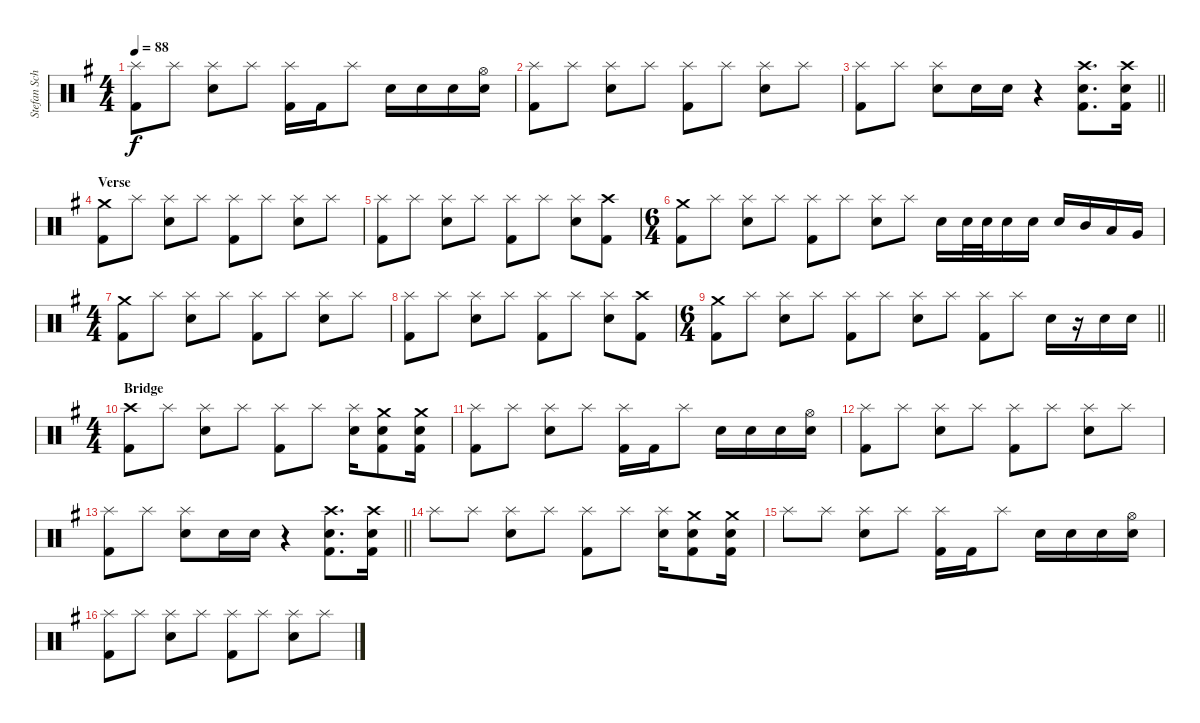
\track ("Stefan Schwarzmann" "Stefan Sch") {instrument percussion}
\staff {score}
\articulation defaults
\ts (4 4)
\tempo 88
\clef neutral
\ks eminor
("Splash (hit)" "Kick (hit) 2").8{dy f} "Splash (hit)".8 ("Splash (hit)" "Snare (hit) 2").8 "Splash (hit)".8 ("Splash (hit)" "Kick (hit) 2").16 "Kick (hit) 2".16 "Splash (hit)".8 "Snare (hit) 2".16 "Snare (hit) 2".16 "Snare (hit) 2".16 ("Hi-Hat (open)" "Snare (hit) 2").16 |
("Splash (hit)" "Kick (hit) 2").8 "Splash (hit)".8 ("Splash (hit)" "Snare (hit) 2").8 "Splash (hit)".8 ("Splash (hit)" "Kick (hit) 2").8 "Splash (hit)".8 ("Splash (hit)" "Snare (hit) 2").8 "Splash (hit)".8 |
\barLineRight lightlight
("Splash (hit)" "Kick (hit) 2").8 "Splash (hit)".8 ("Splash (hit)" "Snare (hit) 2").8 "Snare (hit) 2".16 "Snare (hit) 2".16 r.4 ("Crash high (hit)" "Snare (hit) 2" "Kick (hit) 2").8{d} ("Crash high (hit)" "Snare (hit) 2" "Kick (hit) 2").16 |
\section ("" "Verse")
("Crash medium (hit)" "Kick (hit) 2").8 "Splash (hit)".8 ("Splash (hit)" "Snare (hit) 2").8 "Splash (hit)".8 ("Splash (hit)" "Kick (hit) 2").8 "Splash (hit)".8 ("Splash (hit)" "Snare (hit) 2").8 "Splash (hit)".8 |
("Splash (hit)" "Kick (hit) 2").8 "Splash (hit)".8 ("Splash (hit)" "Snare (hit) 2").8 "Splash (hit)".8 ("Splash (hit)" "Kick (hit) 2").8 "Splash (hit)".8 ("Splash (hit)" "Snare (hit) 2").8 ("Crash high (hit)" "Kick (hit) 2").8 |
\ts (6 4)
("Crash medium (hit)" "Kick (hit) 2").8 "Splash (hit)".8 ("Splash (hit)" "Snare (hit) 2").8 "Splash (hit)".8 ("Splash (hit)" "Kick (hit) 2").8 "Splash (hit)".8 ("Splash (hit)" "Snare (hit) 2").8 "Splash (hit)".8 "Snare (hit) 2".16 "Snare (hit) 2".32 "Snare (hit) 2".32 "Snare (hit) 2".16 "Snare (hit) 2".16 "Snare (hit) 2".16 "Mid Tom (hit)".16 "Low Tom (hit)".16 "Very Low Tom (hit)".16 |
\ts (4 4)
("Crash medium (hit)" "Kick (hit) 2").8 "Splash (hit)".8 ("Splash (hit)" "Snare (hit) 2").8 "Splash (hit)".8 ("Splash (hit)" "Kick (hit) 2").8 "Splash (hit)".8 ("Splash (hit)" "Snare (hit) 2").8 "Splash (hit)".8 |
("Splash (hit)" "Kick (hit) 2").8 "Splash (hit)".8 ("Splash (hit)" "Snare (hit) 2").8 "Splash (hit)".8 ("Splash (hit)" "Kick (hit) 2").8 "Splash (hit)".8 ("Splash (hit)" "Snare (hit) 2").8 ("Crash high (hit)" "Kick (hit) 2").8 |
\ts (6 4)
\barLineRight lightlight
("Crash medium (hit)" "Kick (hit) 2").8 "Splash (hit)".8 ("Splash (hit)" "Snare (hit) 2").8 "Splash (hit)".8 ("Splash (hit)" "Kick (hit) 2").8 "Splash (hit)".8 ("Splash (hit)" "Snare (hit) 2").8 "Splash (hit)".8 ("Splash (hit)" "Kick (hit) 2").8 "Splash (hit)".8 "Snare (hit) 2".16 r.16 "Snare (hit) 2".16 "Snare (hit) 2".16 |
\ts (4 4)
\section ("" "Bridge")
("Crash high (hit)" "Kick (hit) 2").8 "Splash (hit)".8 ("Splash (hit)" "Snare (hit) 2").8 "Splash (hit)".8 ("Splash (hit)" "Kick (hit) 2").8 "Splash (hit)".8 ("Splash (hit)" "Snare (hit) 2").16 ("Crash medium (hit)" "Snare (hit) 2" "Kick (hit) 2").8 ("Crash medium (hit)" "Snare (hit) 2" "Kick (hit) 2").16 |
("Splash (hit)" "Kick (hit) 2").8 "Splash (hit)".8 ("Splash (hit)" "Snare (hit) 2").8 "Splash (hit)".8 ("Splash (hit)" "Kick (hit) 2").16 "Kick (hit) 2".16 "Splash (hit)".8 "Snare (hit) 2".16 "Snare (hit) 2".16 "Snare (hit) 2".16 ("Hi-Hat (open)" "Snare (hit) 2").16 |
("Splash (hit)" "Kick (hit) 2").8 "Splash (hit)".8 ("Splash (hit)" "Snare (hit) 2").8 "Splash (hit)".8 ("Splash (hit)" "Kick (hit) 2").8 "Splash (hit)".8 ("Splash (hit)" "Snare (hit) 2").8 "Splash (hit)".8 |
\barLineRight lightlight
("Splash (hit)" "Kick (hit) 2").8 "Splash (hit)".8 ("Splash (hit)" "Snare (hit) 2").8 "Snare (hit) 2".16 "Snare (hit) 2".16 r.4 ("Crash high (hit)" "Snare (hit) 2" "Kick (hit) 2").8{d} ("Crash high (hit)" "Snare (hit) 2" "Kick (hit) 2").16 |
"Splash (hit)".8 "Splash (hit)".8 ("Splash (hit)" "Snare (hit) 2").8 "Splash (hit)".8 ("Splash (hit)" "Kick (hit) 2").8 "Splash (hit)".8 ("Splash (hit)" "Snare (hit) 2").16 ("Crash medium (hit)" "Snare (hit) 2" "Kick (hit) 2").8 ("Crash medium (hit)" "Snare (hit) 2" "Kick (hit) 2").16 |
"Splash (hit)".8 "Splash (hit)".8 ("Splash (hit)" "Snare (hit) 2").8 "Splash (hit)".8 ("Splash (hit)" "Kick (hit) 2").16 "Kick (hit) 2".16 "Splash (hit)".8 "Snare (hit) 2".16 "Snare (hit) 2".16 "Snare (hit) 2".16 ("Hi-Hat (open)" "Snare (hit) 2").16 |
("Splash (hit)" "Kick (hit) 2").8 "Splash (hit)".8 ("Splash (hit)" "Snare (hit) 2").8 "Splash (hit)".8 ("Splash (hit)" "Kick (hit) 2").8 "Splash (hit)".8 ("Splash (hit)" "Snare (hit) 2").8 "Splash (hit)".8
